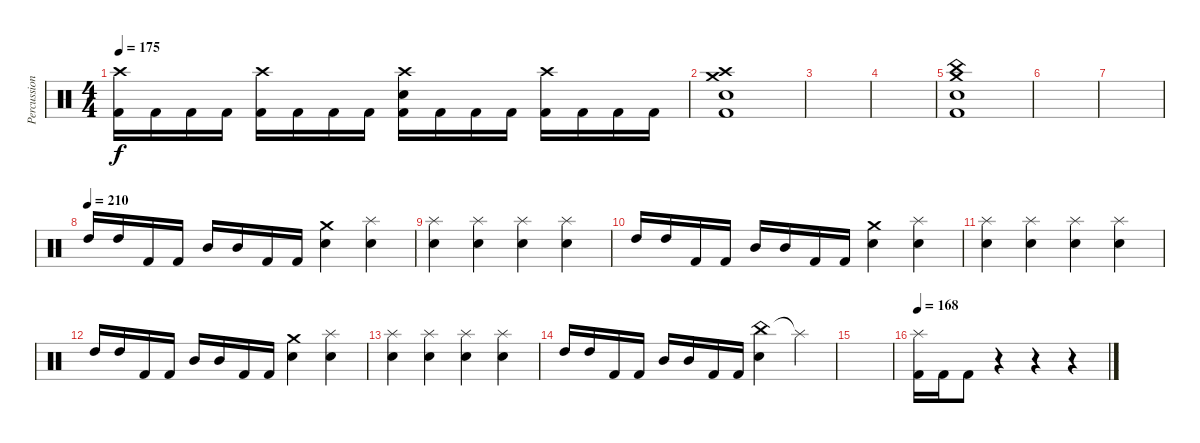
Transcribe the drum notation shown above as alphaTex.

\track ("Percussion" "Percussion") {instrument percussion}
\staff {score}
\articulation defaults
\ts (4 4)
\tempo 175
\clef neutral
\ks c
("Crash high (hit)" "Kick (hit) 2").16{dy f} "Kick (hit) 2".16 "Kick (hit) 2".16 "Kick (hit) 2".16 ("Crash high (hit)" "Kick (hit) 2").16 "Kick (hit) 2".16 "Kick (hit) 2".16 "Kick (hit) 2".16 ("Crash high (hit)" "Electric Snare (hit)" "Kick (hit) 2").16 "Kick (hit) 2".16 "Kick (hit) 2".16 "Kick (hit) 2".16 ("Crash high (hit)" "Kick (hit) 2").16 "Kick (hit) 2".16 "Kick (hit) 2".16 "Kick (hit) 2".16 |
("Crash high (hit)" "Crash medium (hit)" "Electric Snare (hit)" "Kick (hit) 2").1 |
|
|
("China (hit)" "Crash medium (hit)" "Electric Snare (hit)" "Kick (hit) 2").1 |
|
|
\tempo (210)
"High Tom (hit)".16 "High Tom (hit)".16 "Kick (hit) 2".16 "Kick (hit) 2".16 "Mid Tom (hit)".16 "Mid Tom (hit)".16 "Kick (hit) 2".16 "Kick (hit) 2".16 ("Crash medium (hit)" "Electric Snare (hit)").4 ("Splash (hit)" "Electric Snare (hit)").4 |
("Splash (hit)" "Electric Snare (hit)").4 ("Splash (hit)" "Electric Snare (hit)").4 ("Splash (hit)" "Electric Snare (hit)").4 ("Splash (hit)" "Electric Snare (hit)").4 |
"High Tom (hit)".16 "High Tom (hit)".16 "Kick (hit) 2".16 "Kick (hit) 2".16 "Mid Tom (hit)".16 "Mid Tom (hit)".16 "Kick (hit) 2".16 "Kick (hit) 2".16 ("Crash medium (hit)" "Electric Snare (hit)").4 ("Splash (hit)" "Electric Snare (hit)").4 |
("Splash (hit)" "Electric Snare (hit)").4 ("Splash (hit)" "Electric Snare (hit)").4 ("Splash (hit)" "Electric Snare (hit)").4 ("Splash (hit)" "Electric Snare (hit)").4 |
"High Tom (hit)".16 "High Tom (hit)".16 "Kick (hit) 2".16 "Kick (hit) 2".16 "Mid Tom (hit)".16 "Mid Tom (hit)".16 "Kick (hit) 2".16 "Kick (hit) 2".16 ("Crash medium (hit)" "Electric Snare (hit)").4 ("Splash (hit)" "Electric Snare (hit)").4 |
("Splash (hit)" "Electric Snare (hit)").4 ("Splash (hit)" "Electric Snare (hit)").4 ("Splash (hit)" "Electric Snare (hit)").4 ("Splash (hit)" "Electric Snare (hit)").4 |
"High Tom (hit)".16 "High Tom (hit)".16 "Kick (hit) 2".16 "Kick (hit) 2".16 "Mid Tom (hit)".16 "Mid Tom (hit)".16 "Kick (hit) 2".16 "Kick (hit) 2".16 ("China (hit)" "Electric Snare (hit)").4 "Splash (hit)"{t}.4 |
|
\tempo 168
("Splash (hit)" "Kick (hit) 2").16 "Kick (hit) 2".16 "Kick (hit) 2".8 r.4 r.4 r.4
